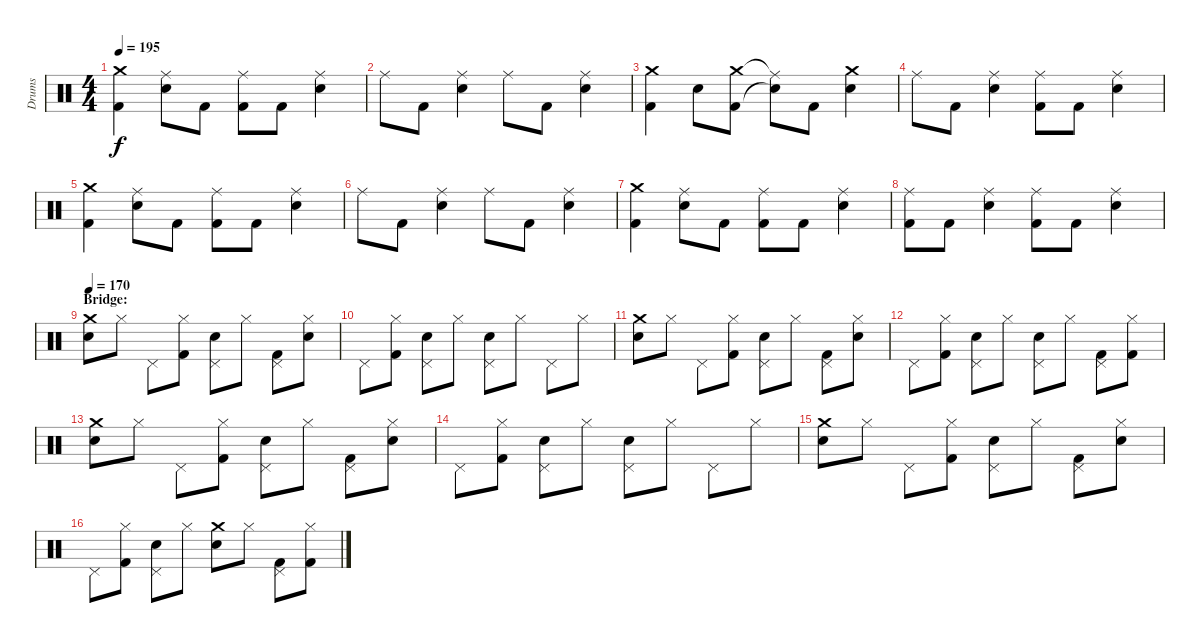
\track ("Drums" "Drums") {instrument percussion}
\staff {score}
\articulation defaults
\ts (4 4)
\tempo 195
\clef neutral
\ks c
("Crash medium (hit)" "Kick (hit) 2").4{dy f} ("Ride (middle)" "Electric Snare (hit)").8 "Kick (hit) 2".8 ("Ride (middle)" "Kick (hit) 2").8 "Kick (hit) 2".8 ("Ride (middle)" "Electric Snare (hit)").4 |
"Ride (middle)".8 "Kick (hit) 2".8 ("Ride (middle)" "Electric Snare (hit)").4 "Ride (middle)".8 "Kick (hit) 2".8 ("Ride (middle)" "Electric Snare (hit)").4 |
("Crash medium (hit)" "Kick (hit) 2").4 "Electric Snare (hit)".8 ("Crash medium (hit)" "Kick (hit) 2").8 ("Ride (middle)"{t} "Snare (hit)"{t}).8 "Kick (hit) 2".8 ("Crash medium (hit)" "Electric Snare (hit)").4 |
"Ride (middle)".8 "Kick (hit) 2".8 ("Ride (middle)" "Electric Snare (hit)").4 ("Ride (middle)" "Kick (hit) 2").8 "Kick (hit) 2".8 ("Ride (middle)" "Electric Snare (hit)").4 |
("Crash medium (hit)" "Kick (hit) 2").4 ("Ride (middle)" "Electric Snare (hit)").8 "Kick (hit) 2".8 ("Ride (middle)" "Kick (hit) 2").8 "Kick (hit) 2".8 ("Ride (middle)" "Electric Snare (hit)").4 |
"Ride (middle)".8 "Kick (hit) 2".8 ("Ride (middle)" "Electric Snare (hit)").4 "Ride (middle)".8 "Kick (hit) 2".8 ("Ride (middle)" "Electric Snare (hit)").4 |
("Crash medium (hit)" "Kick (hit) 2").4 ("Ride (middle)" "Electric Snare (hit)").8 "Kick (hit) 2".8 ("Ride (middle)" "Kick (hit) 2").8 "Kick (hit) 2".8 ("Ride (middle)" "Electric Snare (hit)").4 |
("Ride (middle)" "Kick (hit) 2").8 "Kick (hit) 2".8 ("Ride (middle)" "Electric Snare (hit)").4 ("Ride (middle)" "Kick (hit) 2").8 "Kick (hit) 2".8 ("Ride (middle)" "Electric Snare (hit)").4 |
\section ("" "Bridge:")
\tempo 170
("Crash medium (hit)" "Electric Snare (hit)").8 "Hi-Hat (closed)".8 "Pedal Hi-Hat (hit)".8 ("Hi-Hat (closed)" "Kick (hit) 2").8 ("Pedal Hi-Hat (hit)" "Electric Snare (hit)").8 "Hi-Hat (closed)".8 ("Pedal Hi-Hat (hit)" "Kick (hit) 2").8 ("Hi-Hat (closed)" "Electric Snare (hit)").8 |
"Pedal Hi-Hat (hit)".8 ("Hi-Hat (closed)" "Kick (hit) 2").8 ("Pedal Hi-Hat (hit)" "Electric Snare (hit)").8 "Hi-Hat (closed)".8 ("Pedal Hi-Hat (hit)" "Electric Snare (hit)").8 "Hi-Hat (closed)".8 "Pedal Hi-Hat (hit)".8 "Hi-Hat (closed)".8 |
("Crash medium (hit)" "Electric Snare (hit)").8 "Hi-Hat (closed)".8 "Pedal Hi-Hat (hit)".8 ("Hi-Hat (closed)" "Kick (hit) 2").8 ("Pedal Hi-Hat (hit)" "Electric Snare (hit)").8 "Hi-Hat (closed)".8 ("Pedal Hi-Hat (hit)" "Kick (hit) 2").8 ("Hi-Hat (closed)" "Electric Snare (hit)").8 |
"Pedal Hi-Hat (hit)".8 ("Hi-Hat (closed)" "Kick (hit) 2").8 ("Pedal Hi-Hat (hit)" "Electric Snare (hit)").8 "Hi-Hat (closed)".8 ("Pedal Hi-Hat (hit)" "Electric Snare (hit)").8 "Hi-Hat (closed)".8 ("Pedal Hi-Hat (hit)" "Kick (hit) 2").8 ("Hi-Hat (closed)" "Kick (hit) 2").8 |
("Crash medium (hit)" "Electric Snare (hit)").8 "Hi-Hat (closed)".8 "Pedal Hi-Hat (hit)".8 ("Hi-Hat (closed)" "Kick (hit) 2").8 ("Pedal Hi-Hat (hit)" "Electric Snare (hit)").8 "Hi-Hat (closed)".8 ("Pedal Hi-Hat (hit)" "Kick (hit) 2").8 ("Hi-Hat (closed)" "Electric Snare (hit)").8 |
"Pedal Hi-Hat (hit)".8 ("Hi-Hat (closed)" "Kick (hit) 2").8 ("Pedal Hi-Hat (hit)" "Electric Snare (hit)").8 "Hi-Hat (closed)".8 ("Pedal Hi-Hat (hit)" "Electric Snare (hit)").8 "Hi-Hat (closed)".8 "Pedal Hi-Hat (hit)".8 "Hi-Hat (closed)".8 |
("Crash medium (hit)" "Electric Snare (hit)").8 "Hi-Hat (closed)".8 "Pedal Hi-Hat (hit)".8 ("Hi-Hat (closed)" "Kick (hit) 2").8 ("Pedal Hi-Hat (hit)" "Electric Snare (hit)").8 "Hi-Hat (closed)".8 ("Pedal Hi-Hat (hit)" "Kick (hit) 2").8 ("Hi-Hat (closed)" "Electric Snare (hit)").8 |
"Pedal Hi-Hat (hit)".8 ("Hi-Hat (closed)" "Kick (hit) 2").8 ("Pedal Hi-Hat (hit)" "Electric Snare (hit)").8 "Hi-Hat (closed)".8 ("Crash medium (hit)" "Electric Snare (hit)").8 "Hi-Hat (closed)".8 ("Pedal Hi-Hat (hit)" "Kick (hit) 2").8 ("Hi-Hat (closed)" "Kick (hit) 2").8
